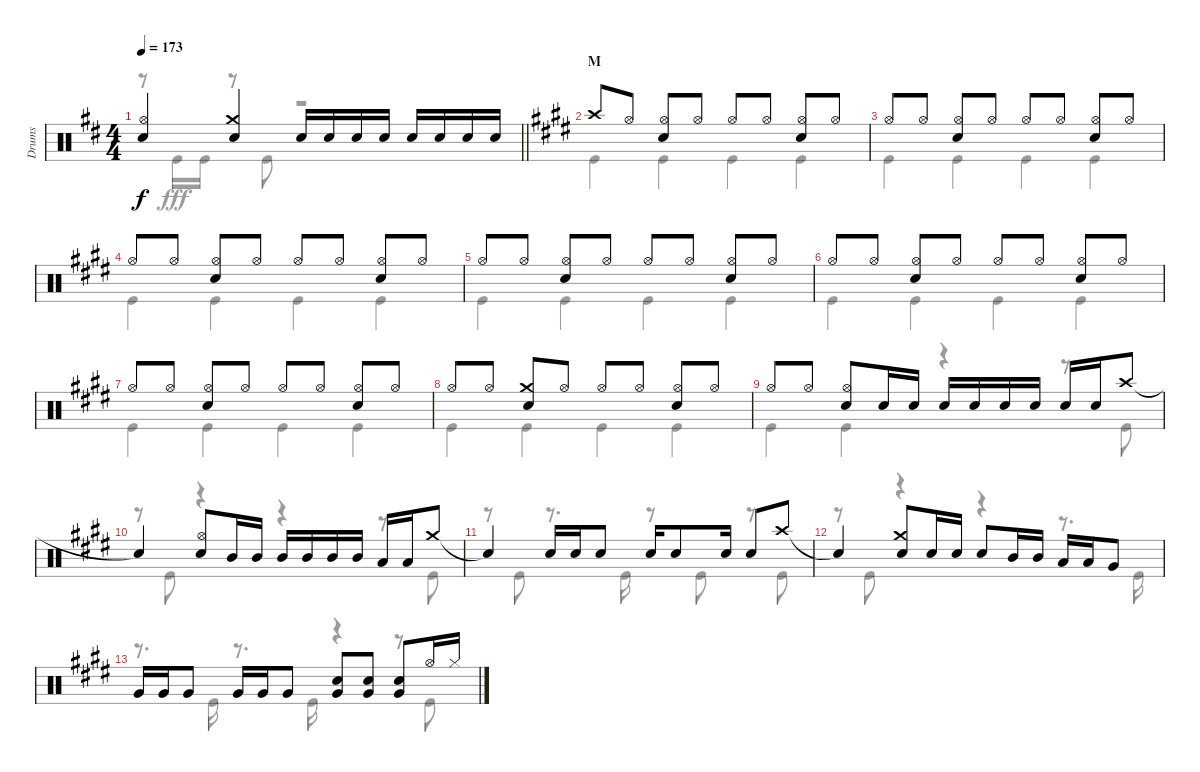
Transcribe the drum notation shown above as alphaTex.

\track ("Drums" "Drums") {instrument percussion}
\staff {score}
\articulation defaults
\voice
\ts (4 4)
\tempo 173
\clef neutral
\barLineRight lightlight
\ks d
("Hi-Hat (open)" "Snare (hit) 2").4{dy f} ("Crash medium (hit)" "Snare (hit) 2").4 "Snare (hit) 2".16 "Snare (hit) 2".16 "Snare (hit) 2".16 "Snare (hit) 2".16 "Snare (hit) 2".16 "Snare (hit) 2".16 "Snare (hit) 2".16 "Snare (hit) 2".16 |
\section ("" "M")
\ks e "Crash high (hit)".8 "Hi-Hat (open)".8
("Hi-Hat (open)" "Snare (hit) 2").8 "Hi-Hat (open)".8 "Hi-Hat (open)".8 "Hi-Hat (open)".8 ("Hi-Hat (open)" "Snare (hit) 2").8 "Hi-Hat (open)".8 |
"Hi-Hat (open)".8 "Hi-Hat (open)".8 ("Hi-Hat (open)" "Snare (hit) 2").8 "Hi-Hat (open)".8 "Hi-Hat (open)".8 "Hi-Hat (open)".8 ("Hi-Hat (open)" "Snare (hit) 2").8 "Hi-Hat (open)".8 |
"Hi-Hat (open)".8 "Hi-Hat (open)".8 ("Hi-Hat (open)" "Snare (hit) 2").8 "Hi-Hat (open)".8 "Hi-Hat (open)".8 "Hi-Hat (open)".8 ("Hi-Hat (open)" "Snare (hit) 2").8 "Hi-Hat (open)".8 |
"Hi-Hat (open)".8 "Hi-Hat (open)".8 ("Hi-Hat (open)" "Snare (hit) 2").8 "Hi-Hat (open)".8 "Hi-Hat (open)".8 "Hi-Hat (open)".8 ("Hi-Hat (open)" "Snare (hit) 2").8 "Hi-Hat (open)".8 |
"Hi-Hat (open)".8 "Hi-Hat (open)".8 ("Hi-Hat (open)" "Snare (hit) 2").8 "Hi-Hat (open)".8 "Hi-Hat (open)".8 "Hi-Hat (open)".8 ("Hi-Hat (open)" "Snare (hit) 2").8 "Hi-Hat (open)".8 |
"Hi-Hat (open)".8 "Hi-Hat (open)".8 ("Hi-Hat (open)" "Snare (hit) 2").8 "Hi-Hat (open)".8 "Hi-Hat (open)".8 "Hi-Hat (open)".8 ("Hi-Hat (open)" "Snare (hit) 2").8 "Hi-Hat (open)".8 |
"Hi-Hat (open)".8 "Hi-Hat (open)".8 ("Crash medium (hit)" "Snare (hit) 2").8 "Hi-Hat (open)".8 "Hi-Hat (open)".8 "Hi-Hat (open)".8 ("Hi-Hat (open)" "Snare (hit) 2").8 "Hi-Hat (open)".8 |
"Hi-Hat (open)".8 "Hi-Hat (open)".8 ("Hi-Hat (open)" "Snare (hit) 2").8 "Snare (hit) 2".16 "Snare (hit) 2".16 "Snare (hit) 2".16 "Snare (hit) 2".16 "Snare (hit) 2".16 "Snare (hit) 2".16 "Snare (hit) 2".16 "Snare (hit) 2".16 "Crash high (hit)".8 |
"Snare (hit)"{t}.4 ("Hi-Hat (open)" "Snare (hit) 2").8 "Mid Tom (hit)".16 "Mid Tom (hit)".16 "Mid Tom (hit)".16 "Mid Tom (hit)".16 "Mid Tom (hit)".16 "Mid Tom (hit)".16 "Low Tom (hit)".16 "Low Tom (hit)".16 "Crash medium (hit)".8 |
"Snare (hit)"{t}.4 "Snare (hit) 2".16 "Snare (hit) 2".16 "Snare (hit) 2".8 "Snare (hit) 2".16 "Snare (hit) 2".8 "Snare (hit) 2".16 "Snare (hit) 2".8 "Crash high (hit)".8 |
"Snare (hit)"{t}.4 ("Crash medium (hit)" "Snare (hit) 2").8 "Snare (hit) 2".16 "Snare (hit) 2".16 "Snare (hit) 2".8 "Mid Tom (hit)".16 "Mid Tom (hit)".16 "Low Tom (hit)".16 "Low Tom (hit)".16 "Very Low Tom (hit)".8 |
"Very Low Tom (hit)".16 "Very Low Tom (hit)".16 "Very Low Tom (hit)".8 "Very Low Tom (hit)".16 "Very Low Tom (hit)".16 "Very Low Tom (hit)".8 ("Snare (hit) 2" "Very Low Tom (hit)").8 ("Snare (hit) 2" "Very Low Tom (hit)").8 ("Snare (hit) 2" "Very Low Tom (hit)").8 "Hi-Hat (open)".16 "Hi-Hat (closed)".16
\voice
\clef neutral
\ottava regular
\simile none
\barLineRight lightlight
\ks d
r.8{dy fff} "Kick (hit)".16 "Kick (hit)".16 r.8 "Kick (hit)".8 r.2 |
\ks e "Kick (hit)".4 "Kick (hit)".4 "Kick (hit)".4 "Kick (hit)".4
|
"Kick (hit)".4 "Kick (hit)".4 "Kick (hit)".4 "Kick (hit)".4 |
"Kick (hit)".4 "Kick (hit)".4 "Kick (hit)".4 "Kick (hit)".4 |
"Kick (hit)".4 "Kick (hit)".4 "Kick (hit)".4 "Kick (hit)".4 |
"Kick (hit)".4 "Kick (hit)".4 "Kick (hit)".4 "Kick (hit)".4 |
"Kick (hit)".4 "Kick (hit)".4 "Kick (hit)".4 "Kick (hit)".4 |
"Kick (hit)".4 "Kick (hit)".4 "Kick (hit)".4 "Kick (hit)".4 |
"Kick (hit)".4 "Kick (hit)".4 r.4 r.8 "Kick (hit)".8 |
r.8 "Kick (hit)".8 r.4 r.4 r.8 "Kick (hit)".8 |
r.8 "Kick (hit)".8 r.8{d} "Kick (hit)".16 r.8 "Kick (hit)".8 r.8 "Kick (hit)".8 |
r.8 "Kick (hit)".8 r.4 r.4 r.8{d} "Kick (hit)".16 |
r.8{d} "Kick (hit)".16 r.8{d} "Kick (hit)".16 r.4 r.8 "Kick (hit)".8
